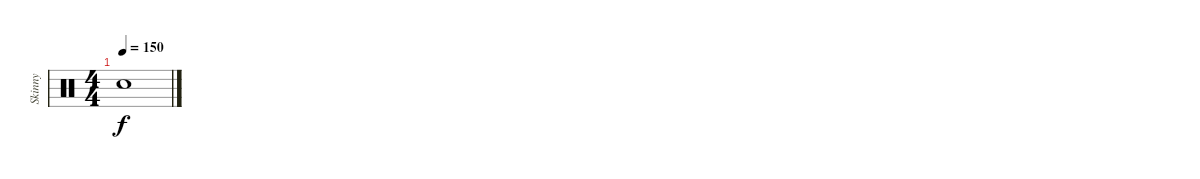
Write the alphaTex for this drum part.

\track ("Skinny" "Skinny") {instrument percussion}
\staff {score}
\articulation defaults
\ts (4 4)
\tempo 150
\clef neutral
\ks c "Snare (hit)"{t}.1{dy f}
